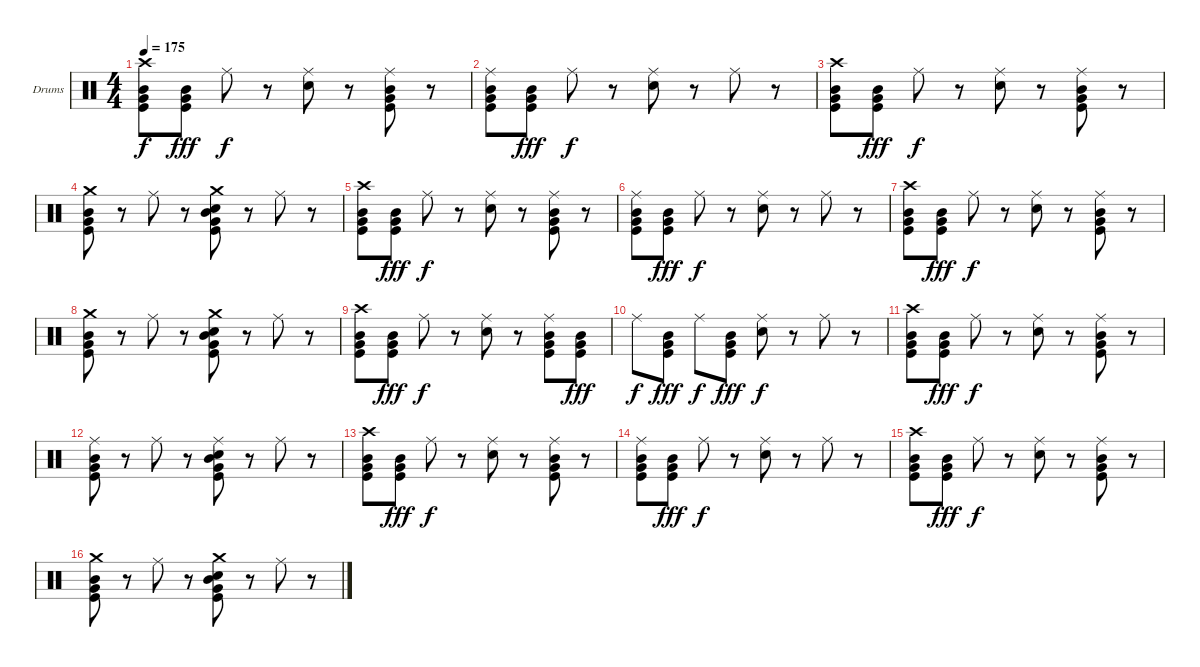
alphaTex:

\bracketExtendMode groupsimilarinstruments
\firstSystemTrackNameOrientation horizontal
\otherSystemsTrackNameOrientation horizontal
\track ("Drumkit" "Drums") {instrument percussion}
\staff {score}
\articulation defaults
\ts (4 4)
\tempo 175
\clef neutral
\ks c
("Crash high (hit)" "Mid Tom (hit)" "Very Low Tom (hit)" "Kick (hit)").8{dy f} ("Mid Tom (hit)" "Very Low Tom (hit)" "Kick (hit)").8{dy fff} "Ride (middle)".8{dy f} r.8 ("Ride (middle)" "Snare (hit) 2").8 r.8 ("Ride (middle)" "Mid Tom (hit)" "Very Low Tom (hit)" "Kick (hit)").8 r.8 |
("Ride (middle)" "Mid Tom (hit)" "Very Low Tom (hit)" "Kick (hit)").8 ("Mid Tom (hit)" "Very Low Tom (hit)" "Kick (hit)").8{dy fff} "Ride (middle)".8{dy f} r.8 ("Ride (middle)" "Snare (hit) 2").8 r.8 "Ride (middle)".8 r.8 |
("Crash high (hit)" "Mid Tom (hit)" "Very Low Tom (hit)" "Kick (hit)").8 ("Mid Tom (hit)" "Very Low Tom (hit)" "Kick (hit)").8{dy fff} "Ride (middle)".8{dy f} r.8 ("Ride (middle)" "Snare (hit) 2").8 r.8 ("Ride (middle)" "Mid Tom (hit)" "Very Low Tom (hit)" "Kick (hit)").8 r.8 |
("Crash medium (hit)" "Mid Tom (hit)" "Very Low Tom (hit)" "Kick (hit)").8 r.8 "Ride (middle)".8 r.8 ("Crash medium (hit)" "Snare (hit) 2" "Mid Tom (hit)" "Very Low Tom (hit)" "Kick (hit)").8 r.8 "Ride (middle)".8 r.8 |
("Crash high (hit)" "Mid Tom (hit)" "Very Low Tom (hit)" "Kick (hit)").8 ("Mid Tom (hit)" "Very Low Tom (hit)" "Kick (hit)").8{dy fff} "Ride (middle)".8{dy f} r.8 ("Ride (middle)" "Snare (hit) 2").8 r.8 ("Ride (middle)" "Mid Tom (hit)" "Very Low Tom (hit)" "Kick (hit)").8 r.8 |
("Ride (middle)" "Mid Tom (hit)" "Very Low Tom (hit)" "Kick (hit)").8 ("Mid Tom (hit)" "Very Low Tom (hit)" "Kick (hit)").8{dy fff} "Ride (middle)".8{dy f} r.8 ("Ride (middle)" "Snare (hit) 2").8 r.8 "Ride (middle)".8 r.8 |
("Crash high (hit)" "Mid Tom (hit)" "Very Low Tom (hit)" "Kick (hit)").8 ("Mid Tom (hit)" "Very Low Tom (hit)" "Kick (hit)").8{dy fff} "Ride (middle)".8{dy f} r.8 ("Ride (middle)" "Snare (hit) 2").8 r.8 ("Ride (middle)" "Mid Tom (hit)" "Very Low Tom (hit)" "Kick (hit)").8 r.8 |
("Crash medium (hit)" "Mid Tom (hit)" "Very Low Tom (hit)" "Kick (hit)").8 r.8 "Ride (middle)".8 r.8 ("Crash medium (hit)" "Snare (hit) 2" "Mid Tom (hit)" "Very Low Tom (hit)" "Kick (hit)").8 r.8 "Ride (middle)".8 r.8 |
("Crash high (hit)" "Mid Tom (hit)" "Very Low Tom (hit)" "Kick (hit)").8 ("Mid Tom (hit)" "Very Low Tom (hit)" "Kick (hit)").8{dy fff} "Ride (middle)".8{dy f} r.8 ("Ride (middle)" "Snare (hit) 2").8 r.8 ("Ride (middle)" "Mid Tom (hit)" "Very Low Tom (hit)" "Kick (hit)").8 ("Mid Tom (hit)" "Very Low Tom (hit)" "Kick (hit)").8{dy fff} |
"Ride (middle)".8{dy f} ("Mid Tom (hit)" "Very Low Tom (hit)" "Kick (hit)").8{dy fff} "Ride (middle)".8{dy f} ("Mid Tom (hit)" "Kick (hit)" "Very Low Tom (hit)").8{dy fff} ("Ride (middle)" "Snare (hit) 2").8{dy f} r.8 "Ride (middle)".8 r.8 |
("Crash high (hit)" "Mid Tom (hit)" "Very Low Tom (hit)" "Kick (hit)").8 ("Mid Tom (hit)" "Very Low Tom (hit)" "Kick (hit)").8{dy fff} "Ride (middle)".8{dy f} r.8 ("Ride (middle)" "Snare (hit) 2").8 r.8 ("Ride (middle)" "Mid Tom (hit)" "Very Low Tom (hit)" "Kick (hit)").8 r.8 |
("Ride (middle)" "Mid Tom (hit)" "Very Low Tom (hit)" "Kick (hit)").8 r.8 "Ride (middle)".8 r.8 ("Ride (middle)" "Snare (hit) 2" "Mid Tom (hit)" "Very Low Tom (hit)" "Kick (hit)").8 r.8 "Ride (middle)".8 r.8 |
("Crash high (hit)" "Mid Tom (hit)" "Very Low Tom (hit)" "Kick (hit)").8 ("Mid Tom (hit)" "Very Low Tom (hit)" "Kick (hit)").8{dy fff} "Ride (middle)".8{dy f} r.8 ("Ride (middle)" "Snare (hit) 2").8 r.8 ("Ride (middle)" "Mid Tom (hit)" "Very Low Tom (hit)" "Kick (hit)").8 r.8 |
("Ride (middle)" "Mid Tom (hit)" "Very Low Tom (hit)" "Kick (hit)").8 ("Mid Tom (hit)" "Very Low Tom (hit)" "Kick (hit)").8{dy fff} "Ride (middle)".8{dy f} r.8 ("Ride (middle)" "Snare (hit) 2").8 r.8 "Ride (middle)".8 r.8 |
("Crash high (hit)" "Mid Tom (hit)" "Very Low Tom (hit)" "Kick (hit)").8 ("Mid Tom (hit)" "Very Low Tom (hit)" "Kick (hit)").8{dy fff} "Ride (middle)".8{dy f} r.8 ("Ride (middle)" "Snare (hit) 2").8 r.8 ("Ride (middle)" "Mid Tom (hit)" "Very Low Tom (hit)" "Kick (hit)").8 r.8 |
("Crash medium (hit)" "Mid Tom (hit)" "Very Low Tom (hit)" "Kick (hit)").8 r.8 "Ride (middle)".8 r.8 ("Crash medium (hit)" "Snare (hit) 2" "Mid Tom (hit)" "Very Low Tom (hit)" "Kick (hit)").8 r.8 "Ride (middle)".8 r.8
